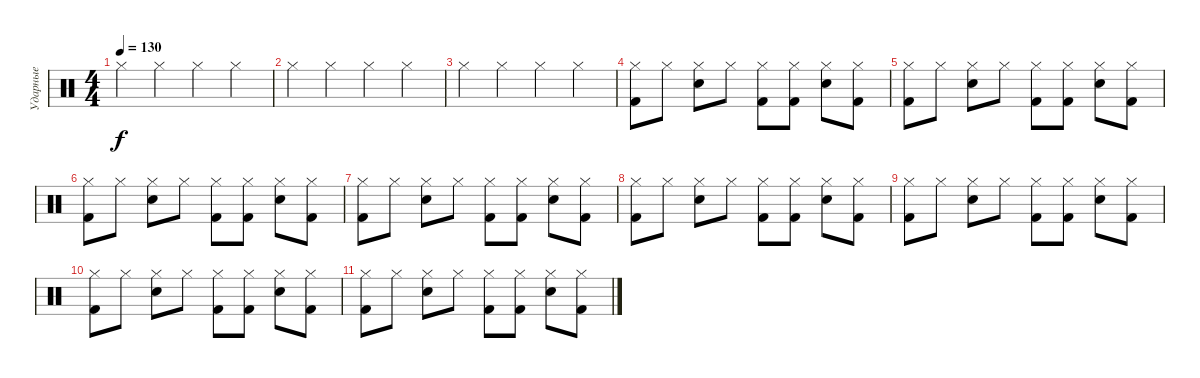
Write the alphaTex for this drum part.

\track ("Ударные" "Ударные") {instrument percussion}
\staff {score}
\articulation defaults
\ts (4 4)
\tempo 130
\clef neutral
\ks c "Hi-Hat (closed)".4{dy f} "Hi-Hat (closed)".4 "Hi-Hat (closed)".4 "Hi-Hat (closed)".4
|
"Hi-Hat (closed)".4 "Hi-Hat (closed)".4 "Hi-Hat (closed)".4 "Hi-Hat (closed)".4 |
"Hi-Hat (closed)".4 "Hi-Hat (closed)".4 "Hi-Hat (closed)".4 "Hi-Hat (closed)".4 |
("Hi-Hat (closed)" "Kick (hit) 2").8 "Hi-Hat (closed)".8 ("Hi-Hat (closed)" "Snare (hit) 2").8 "Hi-Hat (closed)".8 ("Hi-Hat (closed)" "Kick (hit) 2").8 ("Hi-Hat (closed)" "Kick (hit) 2").8 ("Hi-Hat (closed)" "Snare (hit) 2").8 ("Hi-Hat (closed)" "Kick (hit) 2").8 |
("Hi-Hat (closed)" "Kick (hit) 2").8 "Hi-Hat (closed)".8 ("Hi-Hat (closed)" "Snare (hit) 2").8 "Hi-Hat (closed)".8 ("Hi-Hat (closed)" "Kick (hit) 2").8 ("Hi-Hat (closed)" "Kick (hit) 2").8 ("Hi-Hat (closed)" "Snare (hit) 2").8 ("Hi-Hat (closed)" "Kick (hit) 2").8 |
("Hi-Hat (closed)" "Kick (hit) 2").8 "Hi-Hat (closed)".8 ("Hi-Hat (closed)" "Snare (hit) 2").8 "Hi-Hat (closed)".8 ("Hi-Hat (closed)" "Kick (hit) 2").8 ("Hi-Hat (closed)" "Kick (hit) 2").8 ("Hi-Hat (closed)" "Snare (hit) 2").8 ("Hi-Hat (closed)" "Kick (hit) 2").8 |
("Hi-Hat (closed)" "Kick (hit) 2").8 "Hi-Hat (closed)".8 ("Hi-Hat (closed)" "Snare (hit) 2").8 "Hi-Hat (closed)".8 ("Hi-Hat (closed)" "Kick (hit) 2").8 ("Hi-Hat (closed)" "Kick (hit) 2").8 ("Hi-Hat (closed)" "Snare (hit) 2").8 ("Hi-Hat (closed)" "Kick (hit) 2").8 |
("Hi-Hat (closed)" "Kick (hit) 2").8 "Hi-Hat (closed)".8 ("Hi-Hat (closed)" "Snare (hit) 2").8 "Hi-Hat (closed)".8 ("Hi-Hat (closed)" "Kick (hit) 2").8 ("Hi-Hat (closed)" "Kick (hit) 2").8 ("Hi-Hat (closed)" "Snare (hit) 2").8 ("Hi-Hat (closed)" "Kick (hit) 2").8 |
("Hi-Hat (closed)" "Kick (hit) 2").8 "Hi-Hat (closed)".8 ("Hi-Hat (closed)" "Snare (hit) 2").8 "Hi-Hat (closed)".8 ("Hi-Hat (closed)" "Kick (hit) 2").8 ("Hi-Hat (closed)" "Kick (hit) 2").8 ("Hi-Hat (closed)" "Snare (hit) 2").8 ("Hi-Hat (closed)" "Kick (hit) 2").8 |
("Hi-Hat (closed)" "Kick (hit) 2").8 "Hi-Hat (closed)".8 ("Hi-Hat (closed)" "Snare (hit) 2").8 "Hi-Hat (closed)".8 ("Hi-Hat (closed)" "Kick (hit) 2").8 ("Hi-Hat (closed)" "Kick (hit) 2").8 ("Hi-Hat (closed)" "Snare (hit) 2").8 ("Hi-Hat (closed)" "Kick (hit) 2").8 |
("Hi-Hat (closed)" "Kick (hit) 2").8 "Hi-Hat (closed)".8 ("Hi-Hat (closed)" "Snare (hit) 2").8 "Hi-Hat (closed)".8 ("Hi-Hat (closed)" "Kick (hit) 2").8 ("Hi-Hat (closed)" "Kick (hit) 2").8 ("Hi-Hat (closed)" "Snare (hit) 2").8 ("Hi-Hat (closed)" "Kick (hit) 2").8
